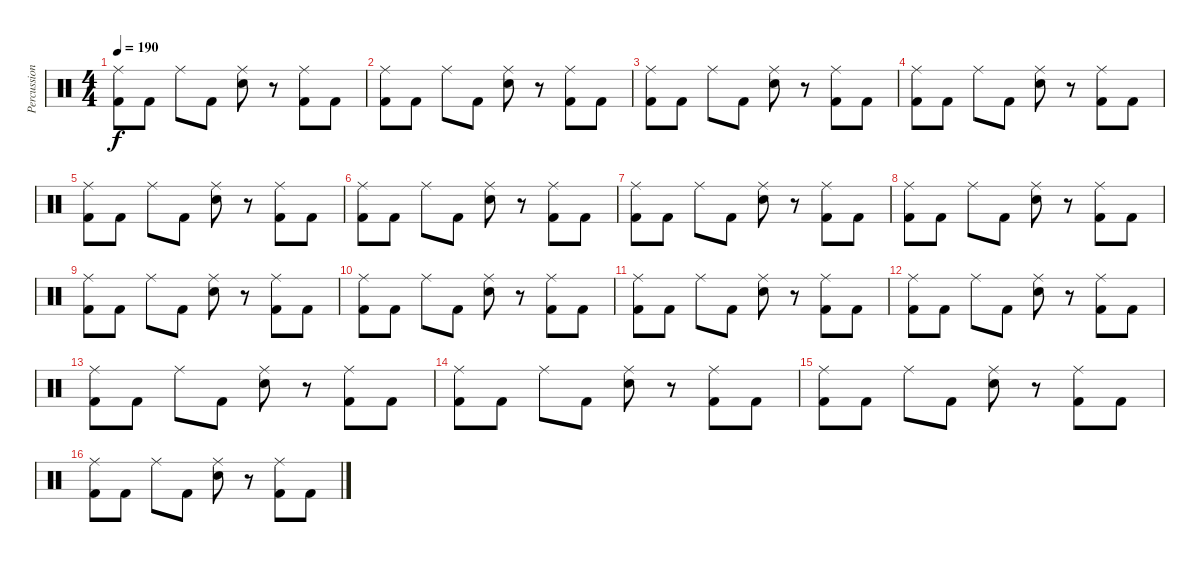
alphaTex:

\track ("Percussion" "Percussion") {instrument percussion}
\staff {score}
\articulation defaults
\ts (4 4)
\tempo 190
\clef neutral
\ks c
("Ride (middle)" "Kick (hit) 2").8{dy f} "Kick (hit) 2".8 "Ride (middle)".8 "Kick (hit) 2".8 ("Ride (middle)" "Snare (hit) 2").8 r.8 ("Ride (middle)" "Kick (hit) 2").8 "Kick (hit) 2".8 |
("Ride (middle)" "Kick (hit) 2").8 "Kick (hit) 2".8 "Ride (middle)".8 "Kick (hit) 2".8 ("Ride (middle)" "Snare (hit) 2").8 r.8 ("Ride (middle)" "Kick (hit) 2").8 "Kick (hit) 2".8 |
("Ride (middle)" "Kick (hit) 2").8 "Kick (hit) 2".8 "Ride (middle)".8 "Kick (hit) 2".8 ("Ride (middle)" "Snare (hit) 2").8 r.8 ("Ride (middle)" "Kick (hit) 2").8 "Kick (hit) 2".8 |
("Ride (middle)" "Kick (hit) 2").8 "Kick (hit) 2".8 "Ride (middle)".8 "Kick (hit) 2".8 ("Ride (middle)" "Snare (hit) 2").8 r.8 ("Ride (middle)" "Kick (hit) 2").8 "Kick (hit) 2".8 |
("Ride (middle)" "Kick (hit) 2").8 "Kick (hit) 2".8 "Ride (middle)".8 "Kick (hit) 2".8 ("Ride (middle)" "Snare (hit) 2").8 r.8 ("Ride (middle)" "Kick (hit) 2").8 "Kick (hit) 2".8 |
("Ride (middle)" "Kick (hit) 2").8 "Kick (hit) 2".8 "Ride (middle)".8 "Kick (hit) 2".8 ("Ride (middle)" "Snare (hit) 2").8 r.8 ("Ride (middle)" "Kick (hit) 2").8 "Kick (hit) 2".8 |
("Ride (middle)" "Kick (hit) 2").8 "Kick (hit) 2".8 "Ride (middle)".8 "Kick (hit) 2".8 ("Ride (middle)" "Snare (hit) 2").8 r.8 ("Ride (middle)" "Kick (hit) 2").8 "Kick (hit) 2".8 |
("Ride (middle)" "Kick (hit) 2").8 "Kick (hit) 2".8 "Ride (middle)".8 "Kick (hit) 2".8 ("Ride (middle)" "Snare (hit) 2").8 r.8 ("Ride (middle)" "Kick (hit) 2").8 "Kick (hit) 2".8 |
("Ride (middle)" "Kick (hit) 2").8 "Kick (hit) 2".8 "Ride (middle)".8 "Kick (hit) 2".8 ("Ride (middle)" "Snare (hit) 2").8 r.8 ("Ride (middle)" "Kick (hit) 2").8 "Kick (hit) 2".8 |
("Ride (middle)" "Kick (hit) 2").8 "Kick (hit) 2".8 "Ride (middle)".8 "Kick (hit) 2".8 ("Ride (middle)" "Snare (hit) 2").8 r.8 ("Ride (middle)" "Kick (hit) 2").8 "Kick (hit) 2".8 |
("Ride (middle)" "Kick (hit) 2").8 "Kick (hit) 2".8 "Ride (middle)".8 "Kick (hit) 2".8 ("Ride (middle)" "Snare (hit) 2").8 r.8 ("Ride (middle)" "Kick (hit) 2").8 "Kick (hit) 2".8 |
("Ride (middle)" "Kick (hit) 2").8 "Kick (hit) 2".8 "Ride (middle)".8 "Kick (hit) 2".8 ("Ride (middle)" "Snare (hit) 2").8 r.8 ("Ride (middle)" "Kick (hit) 2").8 "Kick (hit) 2".8 |
("Ride (middle)" "Kick (hit) 2").8 "Kick (hit) 2".8 "Ride (middle)".8 "Kick (hit) 2".8 ("Ride (middle)" "Snare (hit) 2").8 r.8 ("Ride (middle)" "Kick (hit) 2").8 "Kick (hit) 2".8 |
("Ride (middle)" "Kick (hit) 2").8 "Kick (hit) 2".8 "Ride (middle)".8 "Kick (hit) 2".8 ("Ride (middle)" "Snare (hit) 2").8 r.8 ("Ride (middle)" "Kick (hit) 2").8 "Kick (hit) 2".8 |
("Ride (middle)" "Kick (hit) 2").8 "Kick (hit) 2".8 "Ride (middle)".8 "Kick (hit) 2".8 ("Ride (middle)" "Snare (hit) 2").8 r.8 ("Ride (middle)" "Kick (hit) 2").8 "Kick (hit) 2".8 |
("Ride (middle)" "Kick (hit) 2").8 "Kick (hit) 2".8 "Ride (middle)".8 "Kick (hit) 2".8 ("Ride (middle)" "Snare (hit) 2").8 r.8 ("Ride (middle)" "Kick (hit) 2").8 "Kick (hit) 2".8
